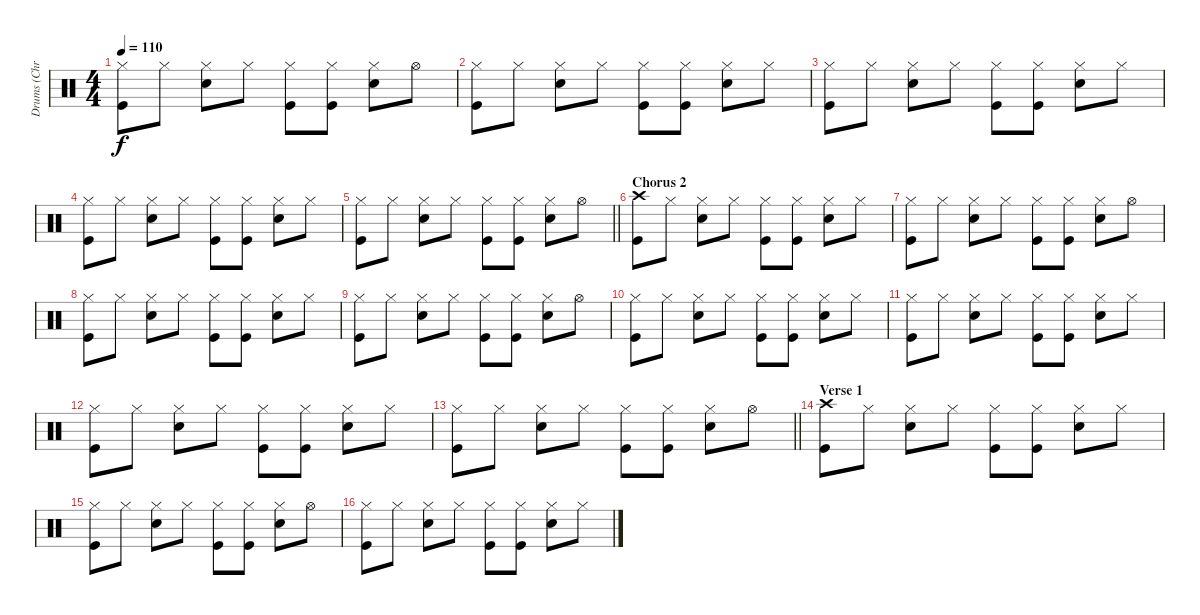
\track ("Drums (Chris Frantz)" "Drums (Chr") {instrument percussion}
\staff {score}
\articulation defaults
\ts (4 4)
\tempo 110
\clef neutral
\ks c
("Hi-Hat (closed)" "Kick (hit)").8{dy f} "Hi-Hat (closed)".8 ("Hi-Hat (closed)" "Snare (hit) 2").8 "Hi-Hat (closed)".8 ("Hi-Hat (closed)" "Kick (hit)").8 ("Hi-Hat (closed)" "Kick (hit)").8 ("Hi-Hat (closed)" "Snare (hit) 2").8 "Hi-Hat (open)".8 |
("Hi-Hat (closed)" "Kick (hit)").8 "Hi-Hat (closed)".8 ("Hi-Hat (closed)" "Snare (hit) 2").8 "Hi-Hat (closed)".8 ("Hi-Hat (closed)" "Kick (hit)").8 ("Hi-Hat (closed)" "Kick (hit)").8 ("Hi-Hat (closed)" "Snare (hit) 2").8 "Hi-Hat (closed)".8 |
("Hi-Hat (closed)" "Kick (hit)").8 "Hi-Hat (closed)".8 ("Hi-Hat (closed)" "Snare (hit) 2").8 "Hi-Hat (closed)".8 ("Hi-Hat (closed)" "Kick (hit)").8 ("Hi-Hat (closed)" "Kick (hit)").8 ("Hi-Hat (closed)" "Snare (hit) 2").8 "Hi-Hat (closed)".8 |
("Hi-Hat (closed)" "Kick (hit)").8 "Hi-Hat (closed)".8 ("Hi-Hat (closed)" "Snare (hit) 2").8 "Hi-Hat (closed)".8 ("Hi-Hat (closed)" "Kick (hit)").8 ("Hi-Hat (closed)" "Kick (hit)").8 ("Hi-Hat (closed)" "Snare (hit) 2").8 "Hi-Hat (closed)".8 |
\barLineRight lightlight
("Hi-Hat (closed)" "Kick (hit)").8 "Hi-Hat (closed)".8 ("Hi-Hat (closed)" "Snare (hit) 2").8 "Hi-Hat (closed)".8 ("Hi-Hat (closed)" "Kick (hit)").8 ("Hi-Hat (closed)" "Kick (hit)").8 ("Hi-Hat (closed)" "Snare (hit) 2").8 "Hi-Hat (open)".8 |
\section ("" "Chorus 2")
("Crash high (hit)" "Kick (hit)").8 "Hi-Hat (closed)".8 ("Hi-Hat (closed)" "Snare (hit) 2").8 "Hi-Hat (closed)".8 ("Hi-Hat (closed)" "Kick (hit)").8 ("Hi-Hat (closed)" "Kick (hit)").8 ("Hi-Hat (closed)" "Snare (hit) 2").8 "Hi-Hat (closed)".8 |
("Hi-Hat (closed)" "Kick (hit)").8 "Hi-Hat (closed)".8 ("Hi-Hat (closed)" "Snare (hit) 2").8 "Hi-Hat (closed)".8 ("Hi-Hat (closed)" "Kick (hit)").8 ("Hi-Hat (closed)" "Kick (hit)").8 ("Hi-Hat (closed)" "Snare (hit) 2").8 "Hi-Hat (open)".8 |
("Hi-Hat (closed)" "Kick (hit)").8 "Hi-Hat (closed)".8 ("Hi-Hat (closed)" "Snare (hit) 2").8 "Hi-Hat (closed)".8 ("Hi-Hat (closed)" "Kick (hit)").8 ("Hi-Hat (closed)" "Kick (hit)").8 ("Hi-Hat (closed)" "Snare (hit) 2").8 "Hi-Hat (closed)".8 |
("Hi-Hat (closed)" "Kick (hit)").8 "Hi-Hat (closed)".8 ("Hi-Hat (closed)" "Snare (hit) 2").8 "Hi-Hat (closed)".8 ("Hi-Hat (closed)" "Kick (hit)").8 ("Hi-Hat (closed)" "Kick (hit)").8 ("Hi-Hat (closed)" "Snare (hit) 2").8 "Hi-Hat (open)".8 |
("Hi-Hat (closed)" "Kick (hit)").8 "Hi-Hat (closed)".8 ("Hi-Hat (closed)" "Snare (hit) 2").8 "Hi-Hat (closed)".8 ("Hi-Hat (closed)" "Kick (hit)").8 ("Hi-Hat (closed)" "Kick (hit)").8 ("Hi-Hat (closed)" "Snare (hit) 2").8 "Hi-Hat (closed)".8 |
("Hi-Hat (closed)" "Kick (hit)").8 "Hi-Hat (closed)".8 ("Hi-Hat (closed)" "Snare (hit) 2").8 "Hi-Hat (closed)".8 ("Hi-Hat (closed)" "Kick (hit)").8 ("Hi-Hat (closed)" "Kick (hit)").8 ("Hi-Hat (closed)" "Snare (hit) 2").8 "Hi-Hat (closed)".8 |
("Hi-Hat (closed)" "Kick (hit)").8 "Hi-Hat (closed)".8 ("Hi-Hat (closed)" "Snare (hit) 2").8 "Hi-Hat (closed)".8 ("Hi-Hat (closed)" "Kick (hit)").8 ("Hi-Hat (closed)" "Kick (hit)").8 ("Hi-Hat (closed)" "Snare (hit) 2").8 "Hi-Hat (closed)".8 |
\barLineRight lightlight
("Hi-Hat (closed)" "Kick (hit)").8 "Hi-Hat (closed)".8 ("Hi-Hat (closed)" "Snare (hit) 2").8 "Hi-Hat (closed)".8 ("Hi-Hat (closed)" "Kick (hit)").8 ("Hi-Hat (closed)" "Kick (hit)").8 ("Hi-Hat (closed)" "Snare (hit) 2").8 "Hi-Hat (open)".8 |
\section ("" "Verse 1")
("Crash high (hit)" "Kick (hit)").8 "Hi-Hat (closed)".8 ("Hi-Hat (closed)" "Snare (hit) 2").8 "Hi-Hat (closed)".8 ("Hi-Hat (closed)" "Kick (hit)").8 ("Hi-Hat (closed)" "Kick (hit)").8 ("Hi-Hat (closed)" "Snare (hit) 2").8 "Hi-Hat (closed)".8 |
("Hi-Hat (closed)" "Kick (hit)").8 "Hi-Hat (closed)".8 ("Hi-Hat (closed)" "Snare (hit) 2").8 "Hi-Hat (closed)".8 ("Hi-Hat (closed)" "Kick (hit)").8 ("Hi-Hat (closed)" "Kick (hit)").8 ("Hi-Hat (closed)" "Snare (hit) 2").8 "Hi-Hat (open)".8 |
("Hi-Hat (closed)" "Kick (hit)").8 "Hi-Hat (closed)".8 ("Hi-Hat (closed)" "Snare (hit) 2").8 "Hi-Hat (closed)".8 ("Hi-Hat (closed)" "Kick (hit)").8 ("Hi-Hat (closed)" "Kick (hit)").8 ("Hi-Hat (closed)" "Snare (hit) 2").8 "Hi-Hat (closed)".8
